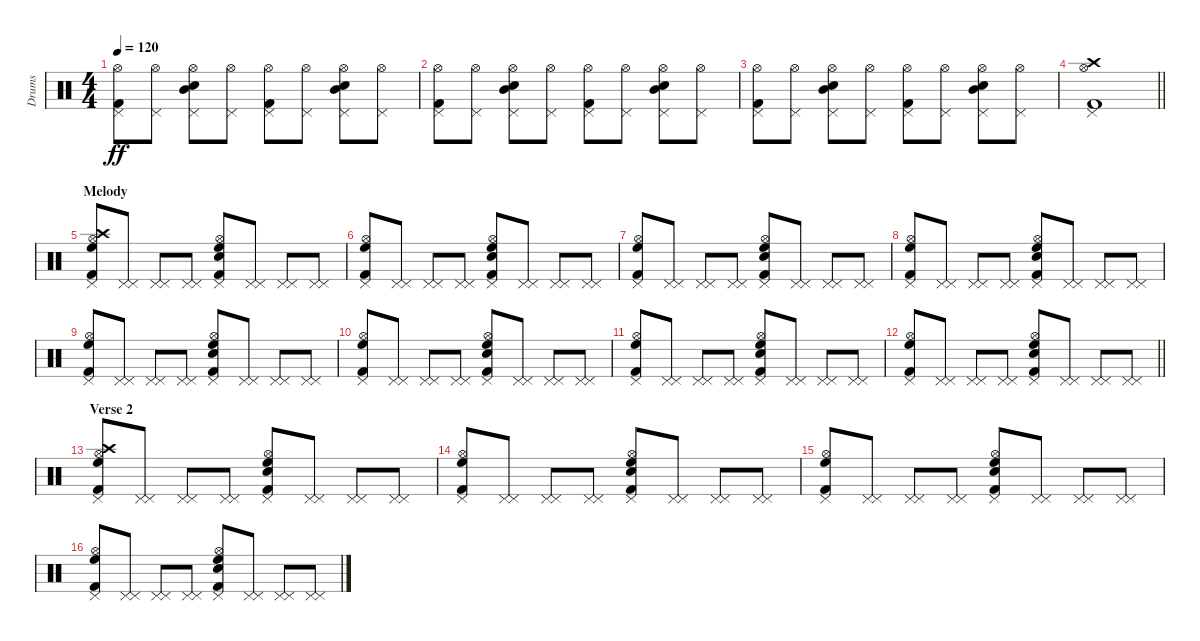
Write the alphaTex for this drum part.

\track ("Drums" "Drums") {instrument percussion}
\staff {score}
\articulation defaults
\ts (4 4)
\tempo 120
\clef neutral
\ks c
("Pedal Hi-Hat (hit)" "Hi-Hat (open)" "Kick (hit) 2").8{dy ff} ("Pedal Hi-Hat (hit)" "Hi-Hat (open)").8 ("Pedal Hi-Hat (hit)" "Hi-Hat (open)" "Electric Snare (hit)" "Mid Tom (hit)").8 ("Pedal Hi-Hat (hit)" "Hi-Hat (open)").8 ("Pedal Hi-Hat (hit)" "Hi-Hat (open)" "Kick (hit) 2").8 ("Pedal Hi-Hat (hit)" "Hi-Hat (open)").8 ("Pedal Hi-Hat (hit)" "Hi-Hat (open)" "Electric Snare (hit)" "Mid Tom (hit)").8 ("Pedal Hi-Hat (hit)" "Hi-Hat (open)").8 |
("Pedal Hi-Hat (hit)" "Hi-Hat (open)" "Kick (hit) 2").8 ("Pedal Hi-Hat (hit)" "Hi-Hat (open)").8 ("Pedal Hi-Hat (hit)" "Hi-Hat (open)" "Electric Snare (hit)" "Mid Tom (hit)").8 ("Pedal Hi-Hat (hit)" "Hi-Hat (open)").8 ("Pedal Hi-Hat (hit)" "Hi-Hat (open)" "Kick (hit) 2").8 ("Pedal Hi-Hat (hit)" "Hi-Hat (open)").8 ("Pedal Hi-Hat (hit)" "Hi-Hat (open)" "Electric Snare (hit)" "Mid Tom (hit)").8 ("Pedal Hi-Hat (hit)" "Hi-Hat (open)").8 |
("Pedal Hi-Hat (hit)" "Hi-Hat (open)" "Kick (hit) 2").8 ("Pedal Hi-Hat (hit)" "Hi-Hat (open)").8 ("Pedal Hi-Hat (hit)" "Hi-Hat (open)" "Electric Snare (hit)" "Mid Tom (hit)").8 ("Pedal Hi-Hat (hit)" "Hi-Hat (open)").8 ("Pedal Hi-Hat (hit)" "Hi-Hat (open)" "Kick (hit) 2").8 ("Pedal Hi-Hat (hit)" "Hi-Hat (open)").8 ("Pedal Hi-Hat (hit)" "Hi-Hat (open)" "Electric Snare (hit)" "Mid Tom (hit)").8 ("Pedal Hi-Hat (hit)" "Hi-Hat (open)").8 |
\barLineRight lightlight
("Pedal Hi-Hat (hit)" "Hi-Hat (open)" "Crash high (hit)" "Kick (hit) 2").1 |
\section ("" "Melody")
("High Floor Tom (hit)" "Hi-Hat (open)" "Crash high (hit)" "Pedal Hi-Hat (hit)" "Kick (hit) 2").8 ("Pedal Hi-Hat (hit)" "Pedal Hi-Hat (hit)").8 ("Pedal Hi-Hat (hit)" "Pedal Hi-Hat (hit)").8 ("Pedal Hi-Hat (hit)" "Pedal Hi-Hat (hit)").8 ("High Floor Tom (hit)" "Hi-Hat (open)" "Electric Snare (hit)" "Pedal Hi-Hat (hit)" "Kick (hit) 2").8 ("Pedal Hi-Hat (hit)" "Pedal Hi-Hat (hit)").8 ("Pedal Hi-Hat (hit)" "Pedal Hi-Hat (hit)").8 ("Pedal Hi-Hat (hit)" "Pedal Hi-Hat (hit)").8 |
("High Floor Tom (hit)" "Hi-Hat (open)" "Pedal Hi-Hat (hit)" "Kick (hit) 2").8 ("Pedal Hi-Hat (hit)" "Pedal Hi-Hat (hit)").8 ("Pedal Hi-Hat (hit)" "Pedal Hi-Hat (hit)").8 ("Pedal Hi-Hat (hit)" "Pedal Hi-Hat (hit)").8 ("High Floor Tom (hit)" "Hi-Hat (open)" "Electric Snare (hit)" "Pedal Hi-Hat (hit)" "Kick (hit) 2").8 ("Pedal Hi-Hat (hit)" "Pedal Hi-Hat (hit)").8 ("Pedal Hi-Hat (hit)" "Pedal Hi-Hat (hit)").8 ("Pedal Hi-Hat (hit)" "Pedal Hi-Hat (hit)").8 |
("High Floor Tom (hit)" "Hi-Hat (open)" "Pedal Hi-Hat (hit)" "Kick (hit) 2").8 ("Pedal Hi-Hat (hit)" "Pedal Hi-Hat (hit)").8 ("Pedal Hi-Hat (hit)" "Pedal Hi-Hat (hit)").8 ("Pedal Hi-Hat (hit)" "Pedal Hi-Hat (hit)").8 ("High Floor Tom (hit)" "Hi-Hat (open)" "Electric Snare (hit)" "Pedal Hi-Hat (hit)" "Kick (hit) 2").8 ("Pedal Hi-Hat (hit)" "Pedal Hi-Hat (hit)").8 ("Pedal Hi-Hat (hit)" "Pedal Hi-Hat (hit)").8 ("Pedal Hi-Hat (hit)" "Pedal Hi-Hat (hit)").8 |
("High Floor Tom (hit)" "Hi-Hat (open)" "Pedal Hi-Hat (hit)" "Kick (hit) 2").8 ("Pedal Hi-Hat (hit)" "Pedal Hi-Hat (hit)").8 ("Pedal Hi-Hat (hit)" "Pedal Hi-Hat (hit)").8 ("Pedal Hi-Hat (hit)" "Pedal Hi-Hat (hit)").8 ("High Floor Tom (hit)" "Hi-Hat (open)" "Electric Snare (hit)" "Pedal Hi-Hat (hit)" "Kick (hit) 2").8 ("Pedal Hi-Hat (hit)" "Pedal Hi-Hat (hit)").8 ("Pedal Hi-Hat (hit)" "Pedal Hi-Hat (hit)").8 ("Pedal Hi-Hat (hit)" "Pedal Hi-Hat (hit)").8 |
("High Floor Tom (hit)" "Hi-Hat (open)" "Pedal Hi-Hat (hit)" "Kick (hit) 2").8 ("Pedal Hi-Hat (hit)" "Pedal Hi-Hat (hit)").8 ("Pedal Hi-Hat (hit)" "Pedal Hi-Hat (hit)").8 ("Pedal Hi-Hat (hit)" "Pedal Hi-Hat (hit)").8 ("High Floor Tom (hit)" "Hi-Hat (open)" "Electric Snare (hit)" "Pedal Hi-Hat (hit)" "Kick (hit) 2").8 ("Pedal Hi-Hat (hit)" "Pedal Hi-Hat (hit)").8 ("Pedal Hi-Hat (hit)" "Pedal Hi-Hat (hit)").8 ("Pedal Hi-Hat (hit)" "Pedal Hi-Hat (hit)").8 |
("High Floor Tom (hit)" "Hi-Hat (open)" "Pedal Hi-Hat (hit)" "Kick (hit) 2").8 ("Pedal Hi-Hat (hit)" "Pedal Hi-Hat (hit)").8 ("Pedal Hi-Hat (hit)" "Pedal Hi-Hat (hit)").8 ("Pedal Hi-Hat (hit)" "Pedal Hi-Hat (hit)").8 ("High Floor Tom (hit)" "Hi-Hat (open)" "Electric Snare (hit)" "Pedal Hi-Hat (hit)" "Kick (hit) 2").8 ("Pedal Hi-Hat (hit)" "Pedal Hi-Hat (hit)").8 ("Pedal Hi-Hat (hit)" "Pedal Hi-Hat (hit)").8 ("Pedal Hi-Hat (hit)" "Pedal Hi-Hat (hit)").8 |
("High Floor Tom (hit)" "Hi-Hat (open)" "Pedal Hi-Hat (hit)" "Kick (hit) 2").8 ("Pedal Hi-Hat (hit)" "Pedal Hi-Hat (hit)").8 ("Pedal Hi-Hat (hit)" "Pedal Hi-Hat (hit)").8 ("Pedal Hi-Hat (hit)" "Pedal Hi-Hat (hit)").8 ("High Floor Tom (hit)" "Hi-Hat (open)" "Electric Snare (hit)" "Pedal Hi-Hat (hit)" "Kick (hit) 2").8 ("Pedal Hi-Hat (hit)" "Pedal Hi-Hat (hit)").8 ("Pedal Hi-Hat (hit)" "Pedal Hi-Hat (hit)").8 ("Pedal Hi-Hat (hit)" "Pedal Hi-Hat (hit)").8 |
\barLineRight lightlight
("High Floor Tom (hit)" "Hi-Hat (open)" "Pedal Hi-Hat (hit)" "Kick (hit) 2").8 ("Pedal Hi-Hat (hit)" "Pedal Hi-Hat (hit)").8 ("Pedal Hi-Hat (hit)" "Pedal Hi-Hat (hit)").8 ("Pedal Hi-Hat (hit)" "Pedal Hi-Hat (hit)").8 ("High Floor Tom (hit)" "Hi-Hat (open)" "Electric Snare (hit)" "Pedal Hi-Hat (hit)" "Kick (hit) 2").8 ("Pedal Hi-Hat (hit)" "Pedal Hi-Hat (hit)").8 ("Pedal Hi-Hat (hit)" "Pedal Hi-Hat (hit)").8 ("Pedal Hi-Hat (hit)" "Pedal Hi-Hat (hit)").8 |
\section ("" "Verse 2")
("High Floor Tom (hit)" "Hi-Hat (open)" "Crash high (hit)" "Pedal Hi-Hat (hit)" "Kick (hit) 2").8 ("Pedal Hi-Hat (hit)" "Pedal Hi-Hat (hit)").8 ("Pedal Hi-Hat (hit)" "Pedal Hi-Hat (hit)").8 ("Pedal Hi-Hat (hit)" "Pedal Hi-Hat (hit)").8 ("High Floor Tom (hit)" "Hi-Hat (open)" "Electric Snare (hit)" "Pedal Hi-Hat (hit)" "Kick (hit) 2").8 ("Pedal Hi-Hat (hit)" "Pedal Hi-Hat (hit)").8 ("Pedal Hi-Hat (hit)" "Pedal Hi-Hat (hit)").8 ("Pedal Hi-Hat (hit)" "Pedal Hi-Hat (hit)").8 |
("High Floor Tom (hit)" "Hi-Hat (open)" "Pedal Hi-Hat (hit)" "Kick (hit) 2").8 ("Pedal Hi-Hat (hit)" "Pedal Hi-Hat (hit)").8 ("Pedal Hi-Hat (hit)" "Pedal Hi-Hat (hit)").8 ("Pedal Hi-Hat (hit)" "Pedal Hi-Hat (hit)").8 ("High Floor Tom (hit)" "Hi-Hat (open)" "Electric Snare (hit)" "Pedal Hi-Hat (hit)" "Kick (hit) 2").8 ("Pedal Hi-Hat (hit)" "Pedal Hi-Hat (hit)").8 ("Pedal Hi-Hat (hit)" "Pedal Hi-Hat (hit)").8 ("Pedal Hi-Hat (hit)" "Pedal Hi-Hat (hit)").8 |
("High Floor Tom (hit)" "Hi-Hat (open)" "Pedal Hi-Hat (hit)" "Kick (hit) 2").8 ("Pedal Hi-Hat (hit)" "Pedal Hi-Hat (hit)").8 ("Pedal Hi-Hat (hit)" "Pedal Hi-Hat (hit)").8 ("Pedal Hi-Hat (hit)" "Pedal Hi-Hat (hit)").8 ("High Floor Tom (hit)" "Hi-Hat (open)" "Electric Snare (hit)" "Pedal Hi-Hat (hit)" "Kick (hit) 2").8 ("Pedal Hi-Hat (hit)" "Pedal Hi-Hat (hit)").8 ("Pedal Hi-Hat (hit)" "Pedal Hi-Hat (hit)").8 ("Pedal Hi-Hat (hit)" "Pedal Hi-Hat (hit)").8 |
("High Floor Tom (hit)" "Hi-Hat (open)" "Pedal Hi-Hat (hit)" "Kick (hit) 2").8 ("Pedal Hi-Hat (hit)" "Pedal Hi-Hat (hit)").8 ("Pedal Hi-Hat (hit)" "Pedal Hi-Hat (hit)").8 ("Pedal Hi-Hat (hit)" "Pedal Hi-Hat (hit)").8 ("High Floor Tom (hit)" "Hi-Hat (open)" "Electric Snare (hit)" "Pedal Hi-Hat (hit)" "Kick (hit) 2").8 ("Pedal Hi-Hat (hit)" "Pedal Hi-Hat (hit)").8 ("Pedal Hi-Hat (hit)" "Pedal Hi-Hat (hit)").8 ("Pedal Hi-Hat (hit)" "Pedal Hi-Hat (hit)").8
